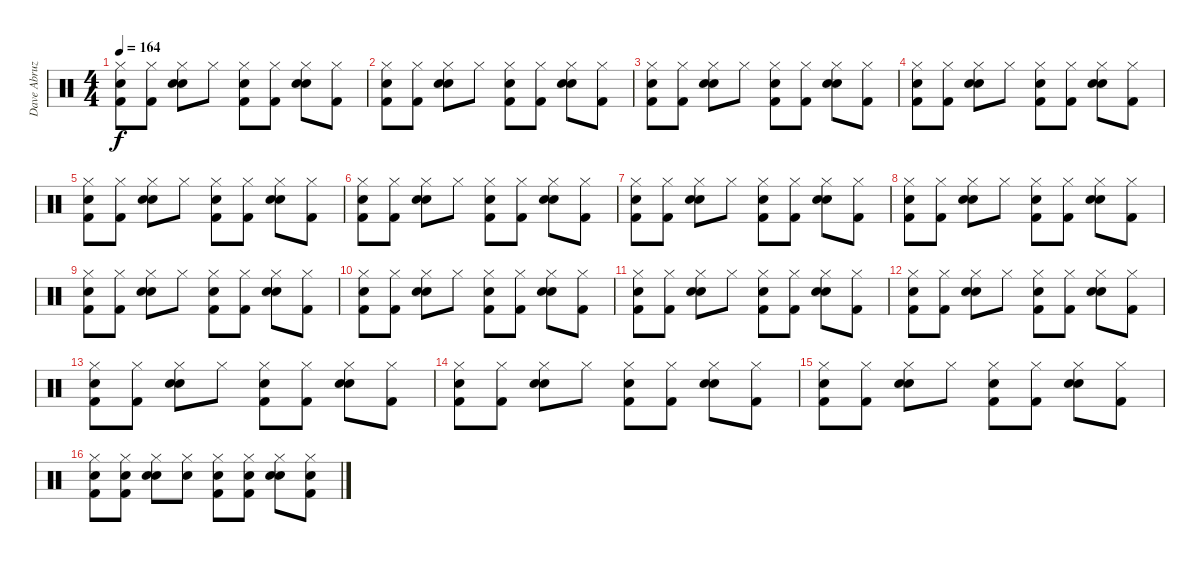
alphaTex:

\track ("Dave Abruzzese" "Dave Abruz") {instrument percussion}
\staff {score}
\articulation defaults
\ts (4 4)
\tempo 164
\clef neutral
\ks c
("Snare (hit) 2" "Kick (hit) 2" "Hi-Hat (closed)").8{dy f} ("Kick (hit) 2" "Hi-Hat (closed)").8 ("Snare (hit) 2" "Snare (hit) 2" "Hi-Hat (closed)").8 "Hi-Hat (closed)".8 ("Snare (hit) 2" "Kick (hit) 2" "Hi-Hat (closed)").8 ("Kick (hit) 2" "Hi-Hat (closed)").8 ("Snare (hit) 2" "Snare (hit) 2" "Hi-Hat (closed)").8 ("Kick (hit) 2" "Hi-Hat (closed)").8 |
("Snare (hit) 2" "Kick (hit) 2" "Hi-Hat (closed)").8 ("Kick (hit) 2" "Hi-Hat (closed)").8 ("Snare (hit) 2" "Snare (hit) 2" "Hi-Hat (closed)").8 "Hi-Hat (closed)".8 ("Snare (hit) 2" "Kick (hit) 2" "Hi-Hat (closed)").8 ("Kick (hit) 2" "Hi-Hat (closed)").8 ("Snare (hit) 2" "Snare (hit) 2" "Hi-Hat (closed)").8 ("Kick (hit) 2" "Hi-Hat (closed)").8 |
("Snare (hit) 2" "Kick (hit) 2" "Hi-Hat (closed)").8 ("Kick (hit) 2" "Hi-Hat (closed)").8 ("Snare (hit) 2" "Snare (hit) 2" "Hi-Hat (closed)").8 "Hi-Hat (closed)".8 ("Snare (hit) 2" "Kick (hit) 2" "Hi-Hat (closed)").8 ("Kick (hit) 2" "Hi-Hat (closed)").8 ("Snare (hit) 2" "Snare (hit) 2" "Hi-Hat (closed)").8 ("Kick (hit) 2" "Hi-Hat (closed)").8 |
("Snare (hit) 2" "Kick (hit) 2" "Hi-Hat (closed)").8 ("Kick (hit) 2" "Hi-Hat (closed)").8 ("Snare (hit) 2" "Snare (hit) 2" "Hi-Hat (closed)").8 "Hi-Hat (closed)".8 ("Snare (hit) 2" "Kick (hit) 2" "Hi-Hat (closed)").8 ("Kick (hit) 2" "Hi-Hat (closed)").8 ("Snare (hit) 2" "Snare (hit) 2" "Hi-Hat (closed)").8 ("Kick (hit) 2" "Hi-Hat (closed)").8 |
("Snare (hit) 2" "Kick (hit) 2" "Hi-Hat (closed)").8 ("Kick (hit) 2" "Hi-Hat (closed)").8 ("Snare (hit) 2" "Snare (hit) 2" "Hi-Hat (closed)").8 "Hi-Hat (closed)".8 ("Snare (hit) 2" "Kick (hit) 2" "Hi-Hat (closed)").8 ("Kick (hit) 2" "Hi-Hat (closed)").8 ("Snare (hit) 2" "Snare (hit) 2" "Hi-Hat (closed)").8 ("Kick (hit) 2" "Hi-Hat (closed)").8 |
("Snare (hit) 2" "Kick (hit) 2" "Hi-Hat (closed)").8 ("Kick (hit) 2" "Hi-Hat (closed)").8 ("Snare (hit) 2" "Snare (hit) 2" "Hi-Hat (closed)").8 "Hi-Hat (closed)".8 ("Snare (hit) 2" "Kick (hit) 2" "Hi-Hat (closed)").8 ("Kick (hit) 2" "Hi-Hat (closed)").8 ("Snare (hit) 2" "Snare (hit) 2" "Hi-Hat (closed)").8 ("Kick (hit) 2" "Hi-Hat (closed)").8 |
("Snare (hit) 2" "Kick (hit) 2" "Hi-Hat (closed)").8 ("Kick (hit) 2" "Hi-Hat (closed)").8 ("Snare (hit) 2" "Snare (hit) 2" "Hi-Hat (closed)").8 "Hi-Hat (closed)".8 ("Snare (hit) 2" "Kick (hit) 2" "Hi-Hat (closed)").8 ("Kick (hit) 2" "Hi-Hat (closed)").8 ("Snare (hit) 2" "Snare (hit) 2" "Hi-Hat (closed)").8 ("Kick (hit) 2" "Hi-Hat (closed)").8 |
("Snare (hit) 2" "Kick (hit) 2" "Hi-Hat (closed)").8 ("Kick (hit) 2" "Hi-Hat (closed)").8 ("Snare (hit) 2" "Snare (hit) 2" "Hi-Hat (closed)").8 "Hi-Hat (closed)".8 ("Snare (hit) 2" "Kick (hit) 2" "Hi-Hat (closed)").8 ("Kick (hit) 2" "Hi-Hat (closed)").8 ("Snare (hit) 2" "Snare (hit) 2" "Hi-Hat (closed)").8 ("Kick (hit) 2" "Hi-Hat (closed)").8 |
("Snare (hit) 2" "Kick (hit) 2" "Hi-Hat (closed)").8 ("Kick (hit) 2" "Hi-Hat (closed)").8 ("Snare (hit) 2" "Snare (hit) 2" "Hi-Hat (closed)").8 "Hi-Hat (closed)".8 ("Snare (hit) 2" "Kick (hit) 2" "Hi-Hat (closed)").8 ("Kick (hit) 2" "Hi-Hat (closed)").8 ("Snare (hit) 2" "Snare (hit) 2" "Hi-Hat (closed)").8 ("Kick (hit) 2" "Hi-Hat (closed)").8 |
("Snare (hit) 2" "Kick (hit) 2" "Hi-Hat (closed)").8 ("Kick (hit) 2" "Hi-Hat (closed)").8 ("Snare (hit) 2" "Snare (hit) 2" "Hi-Hat (closed)").8 "Hi-Hat (closed)".8 ("Snare (hit) 2" "Kick (hit) 2" "Hi-Hat (closed)").8 ("Kick (hit) 2" "Hi-Hat (closed)").8 ("Snare (hit) 2" "Snare (hit) 2" "Hi-Hat (closed)").8 ("Kick (hit) 2" "Hi-Hat (closed)").8 |
("Snare (hit) 2" "Kick (hit) 2" "Hi-Hat (closed)").8 ("Kick (hit) 2" "Hi-Hat (closed)").8 ("Snare (hit) 2" "Snare (hit) 2" "Hi-Hat (closed)").8 "Hi-Hat (closed)".8 ("Snare (hit) 2" "Kick (hit) 2" "Hi-Hat (closed)").8 ("Kick (hit) 2" "Hi-Hat (closed)").8 ("Snare (hit) 2" "Snare (hit) 2" "Hi-Hat (closed)").8 ("Kick (hit) 2" "Hi-Hat (closed)").8 |
("Snare (hit) 2" "Kick (hit) 2" "Hi-Hat (closed)").8 ("Kick (hit) 2" "Hi-Hat (closed)").8 ("Snare (hit) 2" "Snare (hit) 2" "Hi-Hat (closed)").8 "Hi-Hat (closed)".8 ("Snare (hit) 2" "Kick (hit) 2" "Hi-Hat (closed)").8 ("Kick (hit) 2" "Hi-Hat (closed)").8 ("Snare (hit) 2" "Snare (hit) 2" "Hi-Hat (closed)").8 ("Kick (hit) 2" "Hi-Hat (closed)").8 |
("Snare (hit) 2" "Kick (hit) 2" "Hi-Hat (closed)").8 ("Kick (hit) 2" "Hi-Hat (closed)").8 ("Snare (hit) 2" "Snare (hit) 2" "Hi-Hat (closed)").8 "Hi-Hat (closed)".8 ("Snare (hit) 2" "Kick (hit) 2" "Hi-Hat (closed)").8 ("Kick (hit) 2" "Hi-Hat (closed)").8 ("Snare (hit) 2" "Snare (hit) 2" "Hi-Hat (closed)").8 ("Kick (hit) 2" "Hi-Hat (closed)").8 |
("Snare (hit) 2" "Kick (hit) 2" "Hi-Hat (closed)").8 ("Kick (hit) 2" "Hi-Hat (closed)").8 ("Snare (hit) 2" "Snare (hit) 2" "Hi-Hat (closed)").8 "Hi-Hat (closed)".8 ("Snare (hit) 2" "Kick (hit) 2" "Hi-Hat (closed)").8 ("Kick (hit) 2" "Hi-Hat (closed)").8 ("Snare (hit) 2" "Snare (hit) 2" "Hi-Hat (closed)").8 ("Kick (hit) 2" "Hi-Hat (closed)").8 |
("Snare (hit) 2" "Kick (hit) 2" "Hi-Hat (closed)").8 ("Kick (hit) 2" "Hi-Hat (closed)").8 ("Snare (hit) 2" "Snare (hit) 2" "Hi-Hat (closed)").8 "Hi-Hat (closed)".8 ("Snare (hit) 2" "Kick (hit) 2" "Hi-Hat (closed)").8 ("Kick (hit) 2" "Hi-Hat (closed)").8 ("Snare (hit) 2" "Snare (hit) 2" "Hi-Hat (closed)").8 ("Kick (hit) 2" "Hi-Hat (closed)").8 |
("Snare (hit) 2" "Kick (hit) 2" "Hi-Hat (closed)").8 ("Snare (hit) 2" "Kick (hit) 2" "Hi-Hat (closed)").8 ("Snare (hit) 2" "Snare (hit) 2" "Hi-Hat (closed)").8 ("Snare (hit) 2" "Hi-Hat (closed)").8 ("Snare (hit) 2" "Kick (hit) 2" "Hi-Hat (closed)").8 ("Snare (hit) 2" "Kick (hit) 2" "Hi-Hat (closed)").8 ("Snare (hit) 2" "Snare (hit) 2" "Hi-Hat (closed)").8 ("Snare (hit) 2" "Kick (hit) 2" "Hi-Hat (closed)").8
